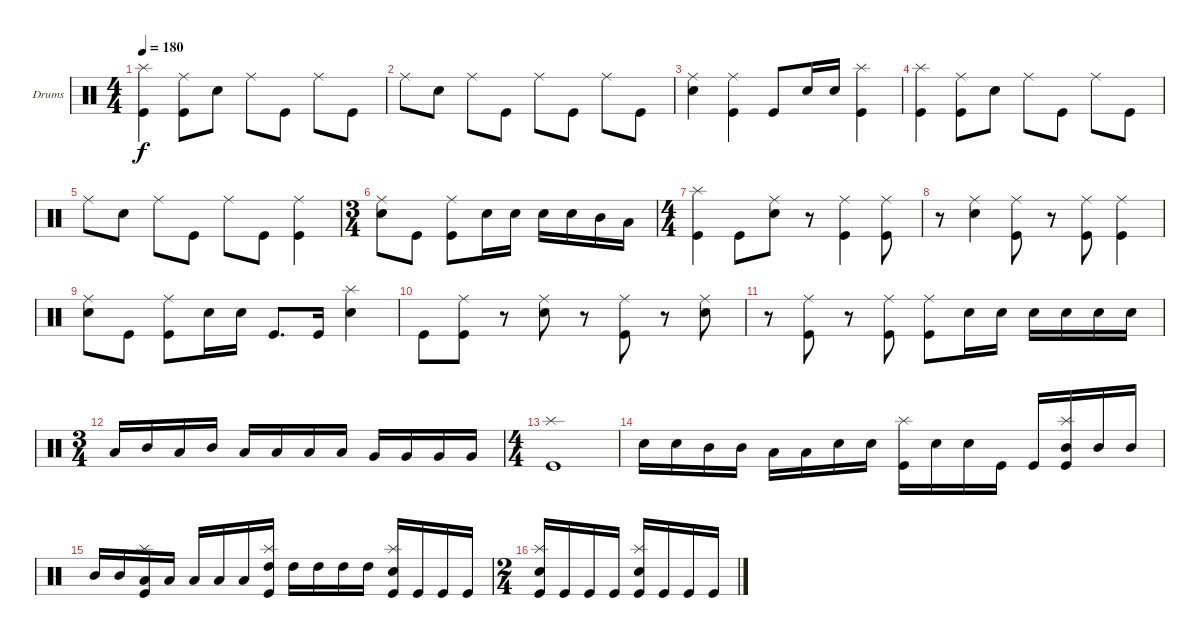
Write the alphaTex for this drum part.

\defaultSystemsLayout 4
\bracketExtendMode groupsimilarinstruments
\firstSystemTrackNameOrientation horizontal
\otherSystemsTrackNameOrientation horizontal
\track ("Drumkit" "Drums") {instrument percussion}
\staff {score}
\articulation defaults
\ts (4 4)
\tempo 180
\clef neutral
\ks c
("Kick (hit)" "Splash (hit)").4{dy f} ("Kick (hit)" "Ride (middle)").8 "Snare (hit) 2".8 "Ride (middle)".8 "Kick (hit)".8 "Ride (middle)".8 "Kick (hit)".8 |
"Ride (middle)".8 "Snare (hit) 2".8 "Ride (middle)".8 "Kick (hit)".8 "Ride (middle)".8 "Kick (hit)".8 "Ride (middle)".8 "Kick (hit)".8 |
("Snare (hit) 2" "Ride (middle)").4 ("Kick (hit)" "Ride (middle)").4 "Kick (hit)".8 "Snare (hit) 2".16 "Snare (hit) 2".16 ("Kick (hit)" "Splash (hit)").4 |
("Kick (hit)" "Splash (hit)").4 ("Kick (hit)" "Ride (middle)").8 "Snare (hit) 2".8 "Ride (middle)".8 "Kick (hit)".8 "Ride (middle)".8 "Kick (hit)".8 |
"Ride (middle)".8 "Snare (hit) 2".8 "Ride (middle)".8 "Kick (hit)".8 "Ride (middle)".8 "Kick (hit)".8 ("Kick (hit)" "Ride (middle)").4 |
\ts (3 4)
("Snare (hit) 2" "Ride (middle)").8 "Kick (hit)".8 ("Kick (hit)" "Ride (middle)").8 "Snare (hit) 2".16 "Snare (hit) 2".16 "Snare (hit) 2".16 "Snare (hit) 2".16 "Mid Tom (hit)".16 "Low Tom (hit)".16 |
\ts (4 4)
("Kick (hit)" "Splash (hit)").4 "Kick (hit)".8 ("Snare (hit) 2" "Ride (middle)").8 r.8 ("Kick (hit)" "Ride (middle)").4 ("Kick (hit)" "Ride (middle)").8 |
r.8 ("Snare (hit) 2" "Ride (middle)").4 ("Kick (hit)" "Ride (middle)").8 r.8 ("Kick (hit)" "Ride (middle)").8 ("Kick (hit)" "Ride (middle)").4 |
("Snare (hit) 2" "Ride (middle)").8 "Kick (hit)".8 ("Kick (hit)" "Ride (middle)").8 "Snare (hit) 2".16 "Snare (hit) 2".16 "Kick (hit)".8{d} "Kick (hit)".16 ("Snare (hit) 2" "Splash (hit)").4 |
"Kick (hit)".8 ("Kick (hit)" "Ride (middle)").8 r.8 ("Snare (hit) 2" "Ride (middle)").8 r.8 ("Kick (hit)" "Ride (middle)").8 r.8 ("Snare (hit) 2" "Ride (middle)").8 |
r.8 ("Kick (hit)" "Ride (middle)").8 r.8 ("Kick (hit)" "Ride (middle)").8 ("Kick (hit)" "Ride (middle)").8 "Snare (hit) 2".16 "Snare (hit) 2".16 "Snare (hit) 2".16 "Snare (hit) 2".16 "Snare (hit) 2".16 "Snare (hit) 2".16 |
\ts (3 4)
"Low Tom (hit)".16 "Mid Tom (hit)".16 "Low Tom (hit)".16 "Mid Tom (hit)".16 "Low Tom (hit)".16 "Low Tom (hit)".16 "Low Tom (hit)".16 "Low Tom (hit)".16 "Very Low Tom (hit)".16 "Very Low Tom (hit)".16 "Very Low Tom (hit)".16 "Very Low Tom (hit)".16 |
\ts (4 4)
("Kick (hit)" "Splash (hit)").1 |
"Snare (hit) 2".16 "Snare (hit) 2".16 "Mid Tom (hit)".16 "Mid Tom (hit)".16 "Low Tom (hit)".16 "Low Tom (hit)".16 "Snare (hit) 2".16 "Snare (hit) 2".16 ("Kick (hit)" "Splash (hit)").16 "Snare (hit) 2".16 "Snare (hit) 2".16 "Kick (hit)".16 "Kick (hit)".16 ("Mid Tom (hit)" "Kick (hit)" "Splash (hit)").16 "Mid Tom (hit)".16 "Mid Tom (hit)".16 |
"Mid Tom (hit)".16 "Mid Tom (hit)".16 ("Low Tom (hit)" "Kick (hit)" "Splash (hit)").16 "Low Tom (hit)".16 "Low Tom (hit)".16 "Low Tom (hit)".16 "Low Tom (hit)".16 ("High Tom (hit)" "Kick (hit)" "Splash (hit)").16 "High Tom (hit)".16 "High Tom (hit)".16 "High Tom (hit)".16 "High Tom (hit)".16 ("Snare (hit) 2" "Kick (hit)" "Splash (hit)").16 "Kick (hit)".16 "Kick (hit)".16 "Kick (hit)".16 |
\ts (2 4)
("Kick (hit)" "Snare (hit) 2" "Splash (hit)").16 "Kick (hit)".16 "Kick (hit)".16 "Kick (hit)".16 ("Kick (hit)" "Snare (hit) 2" "Splash (hit)").16 "Kick (hit)".16 "Kick (hit)".16 "Kick (hit)".16
